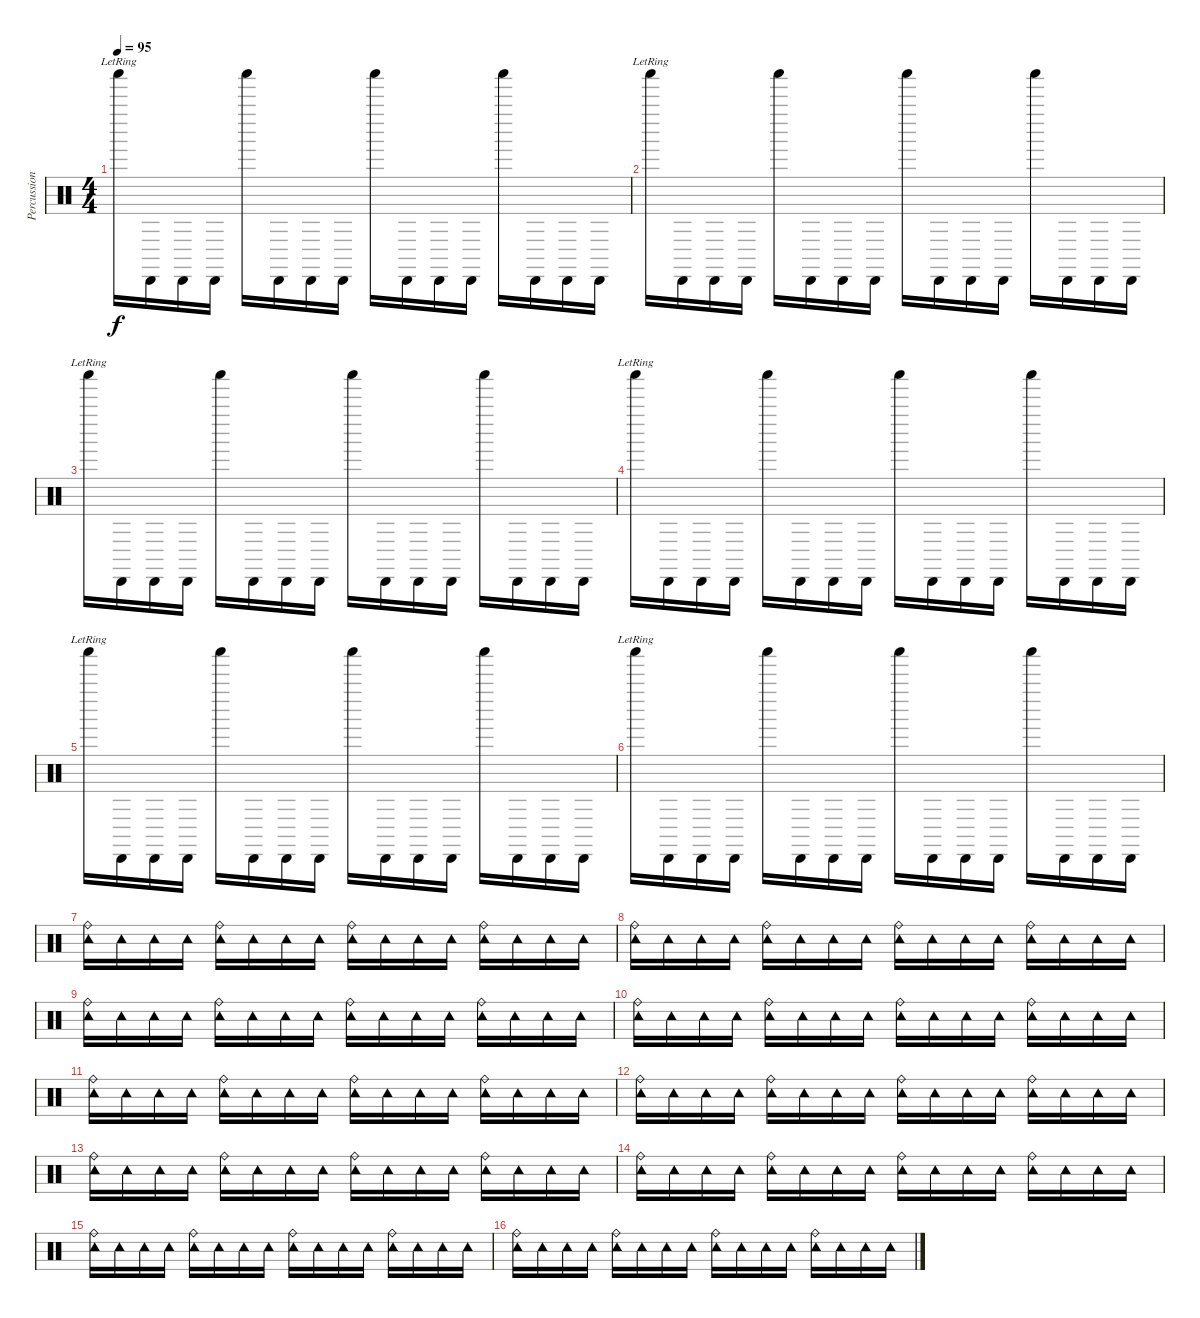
\track ("Percussion (2)" "Percussion") {instrument percussion}
\staff {score}
\articulation defaults
\ts (4 4)
\tempo 95
\clef neutral
\ks c "Shaker (hit)"{lr}.16{dy f} "Cabasa (hit)".16 "Cabasa (hit)".16 "Cabasa (hit)".16 "Shaker (hit)".16 "Cabasa (hit)".16 "Cabasa (hit)".16 "Cabasa (hit)".16 "Shaker (hit)".16 "Cabasa (hit)".16 "Cabasa (hit)".16 "Cabasa (hit)".16 "Shaker (hit)".16 "Cabasa (hit)".16 "Cabasa (hit)".16 "Cabasa (hit)".16
|
"Shaker (hit)"{lr}.16 "Cabasa (hit)".16 "Cabasa (hit)".16 "Cabasa (hit)".16 "Shaker (hit)".16 "Cabasa (hit)".16 "Cabasa (hit)".16 "Cabasa (hit)".16 "Shaker (hit)".16 "Cabasa (hit)".16 "Cabasa (hit)".16 "Cabasa (hit)".16 "Shaker (hit)".16 "Cabasa (hit)".16 "Cabasa (hit)".16 "Cabasa (hit)".16 |
"Shaker (hit)"{lr}.16 "Cabasa (hit)".16 "Cabasa (hit)".16 "Cabasa (hit)".16 "Shaker (hit)".16 "Cabasa (hit)".16 "Cabasa (hit)".16 "Cabasa (hit)".16 "Shaker (hit)".16 "Cabasa (hit)".16 "Cabasa (hit)".16 "Cabasa (hit)".16 "Shaker (hit)".16 "Cabasa (hit)".16 "Cabasa (hit)".16 "Cabasa (hit)".16 |
"Shaker (hit)"{lr}.16 "Cabasa (hit)".16 "Cabasa (hit)".16 "Cabasa (hit)".16 "Shaker (hit)".16 "Cabasa (hit)".16 "Cabasa (hit)".16 "Cabasa (hit)".16 "Shaker (hit)".16 "Cabasa (hit)".16 "Cabasa (hit)".16 "Cabasa (hit)".16 "Shaker (hit)".16 "Cabasa (hit)".16 "Cabasa (hit)".16 "Cabasa (hit)".16 |
"Shaker (hit)"{lr}.16 "Cabasa (hit)".16 "Cabasa (hit)".16 "Cabasa (hit)".16 "Shaker (hit)".16 "Cabasa (hit)".16 "Cabasa (hit)".16 "Cabasa (hit)".16 "Shaker (hit)".16 "Cabasa (hit)".16 "Cabasa (hit)".16 "Cabasa (hit)".16 "Shaker (hit)".16 "Cabasa (hit)".16 "Cabasa (hit)".16 "Cabasa (hit)".16 |
"Shaker (hit)"{lr}.16 "Cabasa (hit)".16 "Cabasa (hit)".16 "Cabasa (hit)".16 "Shaker (hit)".16 "Cabasa (hit)".16 "Cabasa (hit)".16 "Cabasa (hit)".16 "Shaker (hit)".16 "Cabasa (hit)".16 "Cabasa (hit)".16 "Cabasa (hit)".16 "Shaker (hit)".16 "Cabasa (hit)".16 "Cabasa (hit)".16 "Cabasa (hit)".16 |
("Tambourine (hit)" "Ride (bell)").16 "Tambourine (hit)".16 "Tambourine (hit)".16 "Tambourine (hit)".16 ("Tambourine (hit)" "Ride (bell)").16 "Tambourine (hit)".16 "Tambourine (hit)".16 "Tambourine (hit)".16 ("Tambourine (hit)" "Ride (bell)").16 "Tambourine (hit)".16 "Tambourine (hit)".16 "Tambourine (hit)".16 ("Tambourine (hit)" "Ride (bell)").16 "Tambourine (hit)".16 "Tambourine (hit)".16 "Tambourine (hit)".16 |
("Tambourine (hit)" "Ride (bell)").16 "Tambourine (hit)".16 "Tambourine (hit)".16 "Tambourine (hit)".16 ("Tambourine (hit)" "Ride (bell)").16 "Tambourine (hit)".16 "Tambourine (hit)".16 "Tambourine (hit)".16 ("Tambourine (hit)" "Ride (bell)").16 "Tambourine (hit)".16 "Tambourine (hit)".16 "Tambourine (hit)".16 ("Tambourine (hit)" "Ride (bell)").16 "Tambourine (hit)".16 "Tambourine (hit)".16 "Tambourine (hit)".16 |
("Tambourine (hit)" "Ride (bell)").16 "Tambourine (hit)".16 "Tambourine (hit)".16 "Tambourine (hit)".16 ("Tambourine (hit)" "Ride (bell)").16 "Tambourine (hit)".16 "Tambourine (hit)".16 "Tambourine (hit)".16 ("Tambourine (hit)" "Ride (bell)").16 "Tambourine (hit)".16 "Tambourine (hit)".16 "Tambourine (hit)".16 ("Tambourine (hit)" "Ride (bell)").16 "Tambourine (hit)".16 "Tambourine (hit)".16 "Tambourine (hit)".16 |
("Tambourine (hit)" "Ride (bell)").16 "Tambourine (hit)".16 "Tambourine (hit)".16 "Tambourine (hit)".16 ("Tambourine (hit)" "Ride (bell)").16 "Tambourine (hit)".16 "Tambourine (hit)".16 "Tambourine (hit)".16 ("Tambourine (hit)" "Ride (bell)").16 "Tambourine (hit)".16 "Tambourine (hit)".16 "Tambourine (hit)".16 ("Tambourine (hit)" "Ride (bell)").16 "Tambourine (hit)".16 "Tambourine (hit)".16 "Tambourine (hit)".16 |
("Tambourine (hit)" "Ride (bell)").16 "Tambourine (hit)".16 "Tambourine (hit)".16 "Tambourine (hit)".16 ("Tambourine (hit)" "Ride (bell)").16 "Tambourine (hit)".16 "Tambourine (hit)".16 "Tambourine (hit)".16 ("Tambourine (hit)" "Ride (bell)").16 "Tambourine (hit)".16 "Tambourine (hit)".16 "Tambourine (hit)".16 ("Tambourine (hit)" "Ride (bell)").16 "Tambourine (hit)".16 "Tambourine (hit)".16 "Tambourine (hit)".16 |
("Tambourine (hit)" "Ride (bell)").16 "Tambourine (hit)".16 "Tambourine (hit)".16 "Tambourine (hit)".16 ("Tambourine (hit)" "Ride (bell)").16 "Tambourine (hit)".16 "Tambourine (hit)".16 "Tambourine (hit)".16 ("Tambourine (hit)" "Ride (bell)").16 "Tambourine (hit)".16 "Tambourine (hit)".16 "Tambourine (hit)".16 ("Tambourine (hit)" "Ride (bell)").16 "Tambourine (hit)".16 "Tambourine (hit)".16 "Tambourine (hit)".16 |
("Tambourine (hit)" "Ride (bell)").16 "Tambourine (hit)".16 "Tambourine (hit)".16 "Tambourine (hit)".16 ("Tambourine (hit)" "Ride (bell)").16 "Tambourine (hit)".16 "Tambourine (hit)".16 "Tambourine (hit)".16 ("Tambourine (hit)" "Ride (bell)").16 "Tambourine (hit)".16 "Tambourine (hit)".16 "Tambourine (hit)".16 ("Tambourine (hit)" "Ride (bell)").16 "Tambourine (hit)".16 "Tambourine (hit)".16 "Tambourine (hit)".16 |
("Tambourine (hit)" "Ride (bell)").16 "Tambourine (hit)".16 "Tambourine (hit)".16 "Tambourine (hit)".16 ("Tambourine (hit)" "Ride (bell)").16 "Tambourine (hit)".16 "Tambourine (hit)".16 "Tambourine (hit)".16 ("Tambourine (hit)" "Ride (bell)").16 "Tambourine (hit)".16 "Tambourine (hit)".16 "Tambourine (hit)".16 ("Tambourine (hit)" "Ride (bell)").16 "Tambourine (hit)".16 "Tambourine (hit)".16 "Tambourine (hit)".16 |
("Tambourine (hit)" "Ride (bell)").16 "Tambourine (hit)".16 "Tambourine (hit)".16 "Tambourine (hit)".16 ("Tambourine (hit)" "Ride (bell)").16 "Tambourine (hit)".16 "Tambourine (hit)".16 "Tambourine (hit)".16 ("Tambourine (hit)" "Ride (bell)").16 "Tambourine (hit)".16 "Tambourine (hit)".16 "Tambourine (hit)".16 ("Tambourine (hit)" "Ride (bell)").16 "Tambourine (hit)".16 "Tambourine (hit)".16 "Tambourine (hit)".16 |
("Tambourine (hit)" "Ride (bell)").16 "Tambourine (hit)".16 "Tambourine (hit)".16 "Tambourine (hit)".16 ("Tambourine (hit)" "Ride (bell)").16 "Tambourine (hit)".16 "Tambourine (hit)".16 "Tambourine (hit)".16 ("Tambourine (hit)" "Ride (bell)").16 "Tambourine (hit)".16 "Tambourine (hit)".16 "Tambourine (hit)".16 ("Tambourine (hit)" "Ride (bell)").16 "Tambourine (hit)".16 "Tambourine (hit)".16 "Tambourine (hit)".16
